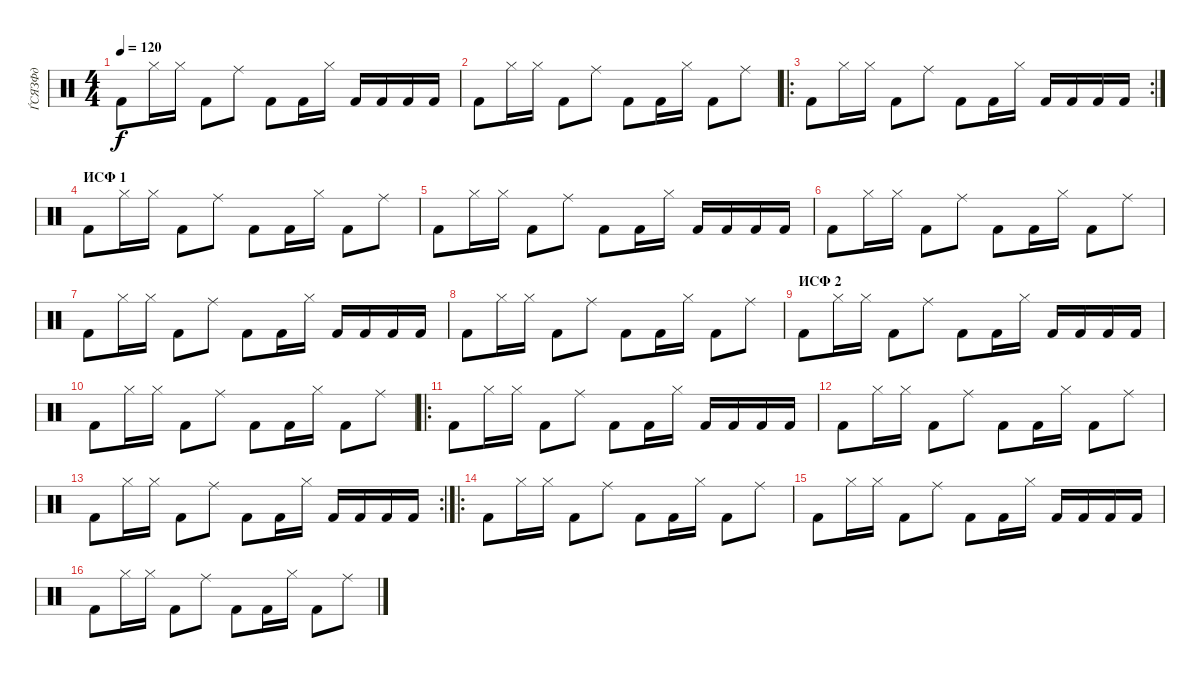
\track ("ЃСЯЗФд" "ЃСЯЗФд") {instrument percussion}
\staff {score}
\articulation defaults
\ts (4 4)
\tempo 120
\clef neutral
\ks aminor "Kick (hit) 2".8{dy f} "Hi-Hat (closed)".16 "Hi-Hat (closed)".16 "Kick (hit) 2".8 "Ride (middle)".8 "Kick (hit) 2".8 "Kick (hit) 2".16 "Hi-Hat (closed)".16 "Kick (hit) 2".16 "Kick (hit) 2".16 "Kick (hit) 2".16 "Kick (hit) 2".16
|
"Kick (hit) 2".8 "Hi-Hat (closed)".16 "Hi-Hat (closed)".16 "Kick (hit) 2".8 "Ride (middle)".8 "Kick (hit) 2".8 "Kick (hit) 2".16 "Hi-Hat (closed)".16 "Kick (hit) 2".8 "Ride (middle)".8 |
\ro
\rc 2 "Kick (hit) 2".8 "Hi-Hat (closed)".16 "Hi-Hat (closed)".16 "Kick (hit) 2".8 "Ride (middle)".8 "Kick (hit) 2".8 "Kick (hit) 2".16 "Hi-Hat (closed)".16 "Kick (hit) 2".16 "Kick (hit) 2".16 "Kick (hit) 2".16 "Kick (hit) 2".16
|
\section ("" "ИСФ 1")
"Kick (hit) 2".8 "Hi-Hat (closed)".16 "Hi-Hat (closed)".16 "Kick (hit) 2".8 "Ride (middle)".8 "Kick (hit) 2".8 "Kick (hit) 2".16 "Hi-Hat (closed)".16 "Kick (hit) 2".8 "Ride (middle)".8 |
"Kick (hit) 2".8 "Hi-Hat (closed)".16 "Hi-Hat (closed)".16 "Kick (hit) 2".8 "Ride (middle)".8 "Kick (hit) 2".8 "Kick (hit) 2".16 "Hi-Hat (closed)".16 "Kick (hit) 2".16 "Kick (hit) 2".16 "Kick (hit) 2".16 "Kick (hit) 2".16 |
"Kick (hit) 2".8 "Hi-Hat (closed)".16 "Hi-Hat (closed)".16 "Kick (hit) 2".8 "Ride (middle)".8 "Kick (hit) 2".8 "Kick (hit) 2".16 "Hi-Hat (closed)".16 "Kick (hit) 2".8 "Ride (middle)".8 |
"Kick (hit) 2".8 "Hi-Hat (closed)".16 "Hi-Hat (closed)".16 "Kick (hit) 2".8 "Ride (middle)".8 "Kick (hit) 2".8 "Kick (hit) 2".16 "Hi-Hat (closed)".16 "Kick (hit) 2".16 "Kick (hit) 2".16 "Kick (hit) 2".16 "Kick (hit) 2".16 |
"Kick (hit) 2".8 "Hi-Hat (closed)".16 "Hi-Hat (closed)".16 "Kick (hit) 2".8 "Ride (middle)".8 "Kick (hit) 2".8 "Kick (hit) 2".16 "Hi-Hat (closed)".16 "Kick (hit) 2".8 "Ride (middle)".8 |
\section ("" "ИСФ 2")
"Kick (hit) 2".8 "Hi-Hat (closed)".16 "Hi-Hat (closed)".16 "Kick (hit) 2".8 "Ride (middle)".8 "Kick (hit) 2".8 "Kick (hit) 2".16 "Hi-Hat (closed)".16 "Kick (hit) 2".16 "Kick (hit) 2".16 "Kick (hit) 2".16 "Kick (hit) 2".16 |
"Kick (hit) 2".8 "Hi-Hat (closed)".16 "Hi-Hat (closed)".16 "Kick (hit) 2".8 "Ride (middle)".8 "Kick (hit) 2".8 "Kick (hit) 2".16 "Hi-Hat (closed)".16 "Kick (hit) 2".8 "Ride (middle)".8 |
\ro "Kick (hit) 2".8 "Hi-Hat (closed)".16 "Hi-Hat (closed)".16 "Kick (hit) 2".8 "Ride (middle)".8 "Kick (hit) 2".8 "Kick (hit) 2".16 "Hi-Hat (closed)".16 "Kick (hit) 2".16 "Kick (hit) 2".16 "Kick (hit) 2".16 "Kick (hit) 2".16
|
"Kick (hit) 2".8 "Hi-Hat (closed)".16 "Hi-Hat (closed)".16 "Kick (hit) 2".8 "Ride (middle)".8 "Kick (hit) 2".8 "Kick (hit) 2".16 "Hi-Hat (closed)".16 "Kick (hit) 2".8 "Ride (middle)".8 |
\rc 2 "Kick (hit) 2".8 "Hi-Hat (closed)".16 "Hi-Hat (closed)".16 "Kick (hit) 2".8 "Ride (middle)".8 "Kick (hit) 2".8 "Kick (hit) 2".16 "Hi-Hat (closed)".16 "Kick (hit) 2".16 "Kick (hit) 2".16 "Kick (hit) 2".16 "Kick (hit) 2".16
|
\ro "Kick (hit) 2".8 "Hi-Hat (closed)".16 "Hi-Hat (closed)".16 "Kick (hit) 2".8 "Ride (middle)".8 "Kick (hit) 2".8 "Kick (hit) 2".16 "Hi-Hat (closed)".16 "Kick (hit) 2".8 "Ride (middle)".8
|
"Kick (hit) 2".8 "Hi-Hat (closed)".16 "Hi-Hat (closed)".16 "Kick (hit) 2".8 "Ride (middle)".8 "Kick (hit) 2".8 "Kick (hit) 2".16 "Hi-Hat (closed)".16 "Kick (hit) 2".16 "Kick (hit) 2".16 "Kick (hit) 2".16 "Kick (hit) 2".16 |
"Kick (hit) 2".8 "Hi-Hat (closed)".16 "Hi-Hat (closed)".16 "Kick (hit) 2".8 "Ride (middle)".8 "Kick (hit) 2".8 "Kick (hit) 2".16 "Hi-Hat (closed)".16 "Kick (hit) 2".8 "Ride (middle)".8
